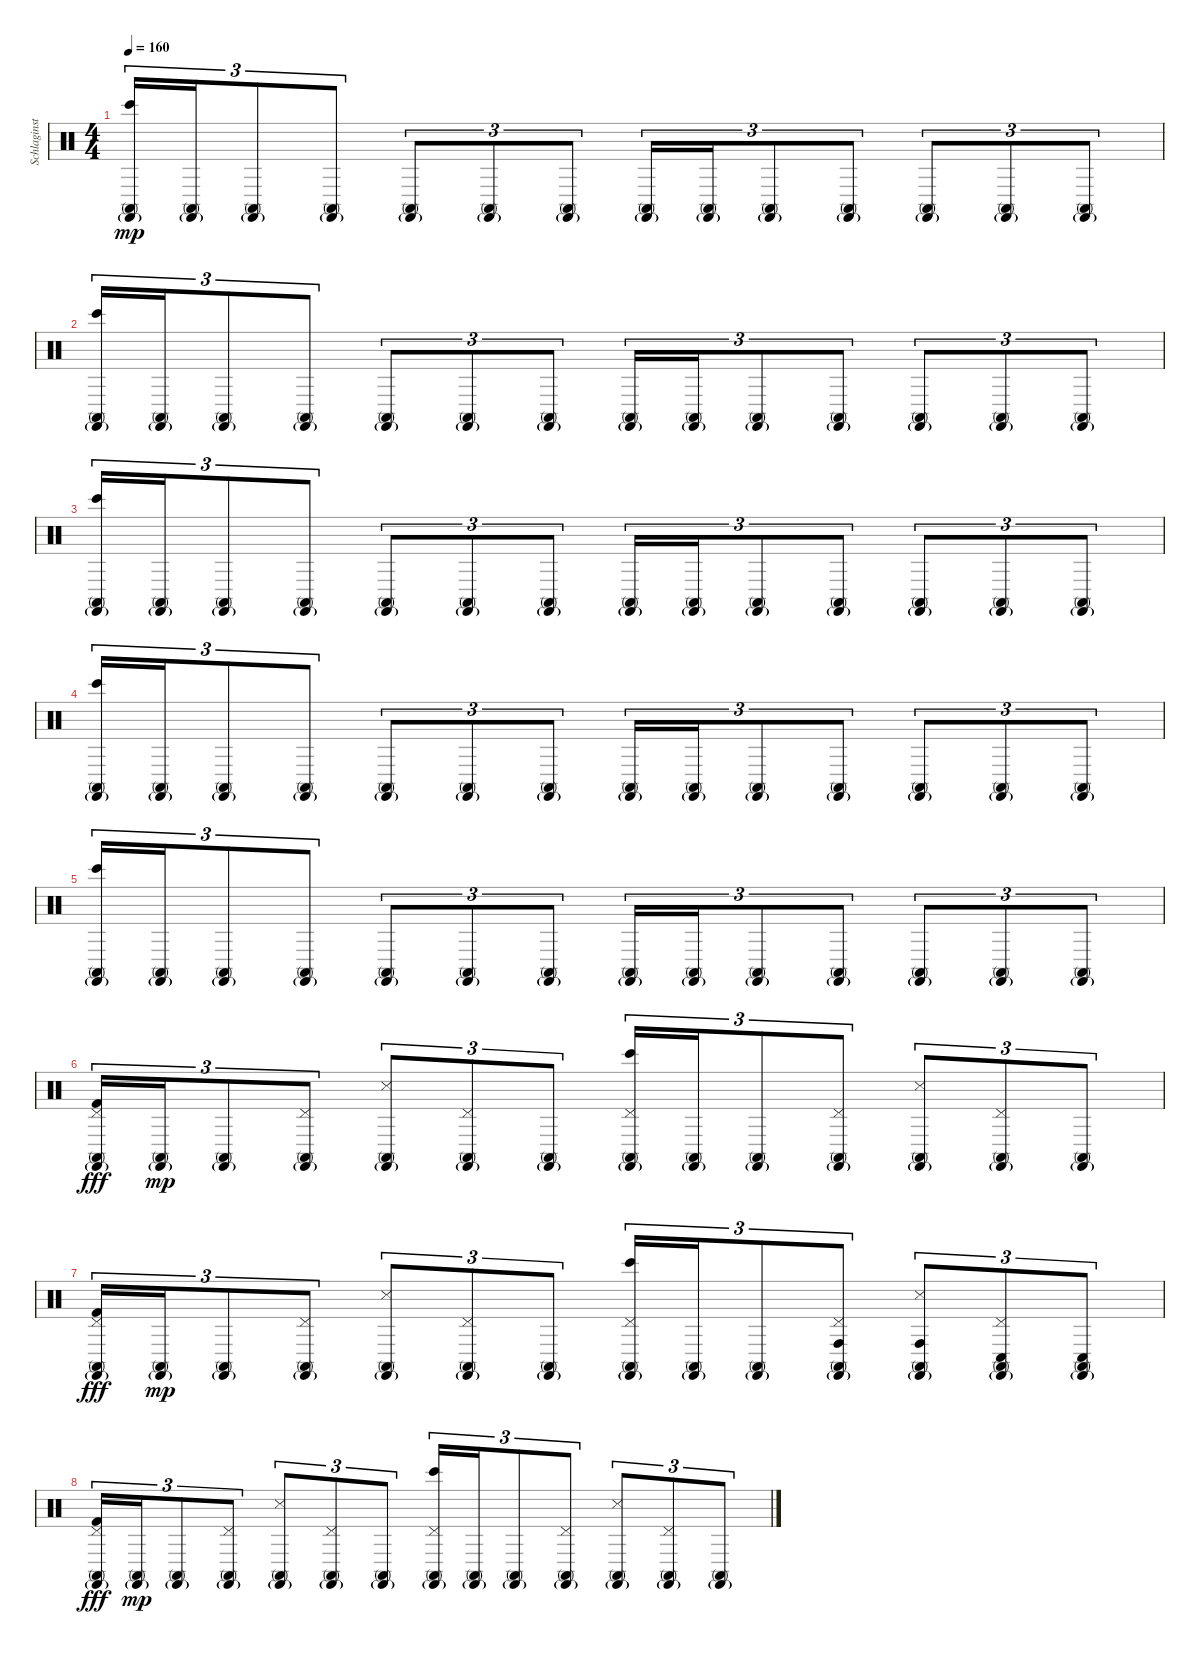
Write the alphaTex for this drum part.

\track ("Schlaginstrumente - Auswahl" "Schlaginst") {instrument percussion}
\staff {score}
\articulation defaults
\ts (4 4)
\tempo 160
\clef neutral
\ks c
("Castanets (hit)"{g} "Bongo High (hit)" "Conga high (mute)").16{tu (3 2) dy mp} ("Castanets (hit)"{g} "Conga high (mute)").16{tu (3 2)} ("Castanets (hit)"{g} "Conga high (mute)").8{tu (3 2)} ("Castanets (hit)"{g} "Conga high (mute)").8{tu (3 2)} ("Castanets (hit)"{g} "Conga high (mute)").8{tu (3 2)} ("Castanets (hit)"{g} "Conga high (mute)").8{tu (3 2)} ("Castanets (hit)"{g} "Conga high (mute)").8{tu (3 2)} ("Castanets (hit)"{g} "Conga high (mute)").16{tu (3 2)} ("Castanets (hit)"{g} "Conga high (mute)").16{tu (3 2)} ("Castanets (hit)"{g} "Conga high (mute)").8{tu (3 2)} ("Castanets (hit)"{g} "Conga high (mute)").8{tu (3 2)} ("Castanets (hit)"{g} "Conga high (mute)").8{tu (3 2)} ("Castanets (hit)"{g} "Conga high (mute)").8{tu (3 2)} ("Castanets (hit)"{g} "Conga high (mute)").8{tu (3 2)} |
("Castanets (hit)"{g} "Bongo High (hit)" "Conga high (mute)").16{tu (3 2)} ("Castanets (hit)"{g} "Conga high (mute)").16{tu (3 2)} ("Castanets (hit)"{g} "Conga high (mute)").8{tu (3 2)} ("Castanets (hit)"{g} "Conga high (mute)").8{tu (3 2)} ("Castanets (hit)"{g} "Conga high (mute)").8{tu (3 2)} ("Castanets (hit)"{g} "Conga high (mute)").8{tu (3 2)} ("Castanets (hit)"{g} "Conga high (mute)").8{tu (3 2)} ("Castanets (hit)"{g} "Conga high (mute)").16{tu (3 2)} ("Castanets (hit)"{g} "Conga high (mute)").16{tu (3 2)} ("Castanets (hit)"{g} "Conga high (mute)").8{tu (3 2)} ("Castanets (hit)"{g} "Conga high (mute)").8{tu (3 2)} ("Castanets (hit)"{g} "Conga high (mute)").8{tu (3 2)} ("Castanets (hit)"{g} "Conga high (mute)").8{tu (3 2)} ("Castanets (hit)"{g} "Conga high (mute)").8{tu (3 2)} |
("Castanets (hit)"{g} "Bongo High (hit)" "Conga high (mute)").16{tu (3 2)} ("Castanets (hit)"{g} "Conga high (mute)").16{tu (3 2)} ("Castanets (hit)"{g} "Conga high (mute)").8{tu (3 2)} ("Castanets (hit)"{g} "Conga high (mute)").8{tu (3 2)} ("Castanets (hit)"{g} "Conga high (mute)").8{tu (3 2)} ("Castanets (hit)"{g} "Conga high (mute)").8{tu (3 2)} ("Castanets (hit)"{g} "Conga high (mute)").8{tu (3 2)} ("Castanets (hit)"{g} "Conga high (mute)").16{tu (3 2)} ("Castanets (hit)"{g} "Conga high (mute)").16{tu (3 2)} ("Castanets (hit)"{g} "Conga high (mute)").8{tu (3 2)} ("Castanets (hit)"{g} "Conga high (mute)").8{tu (3 2)} ("Castanets (hit)"{g} "Conga high (mute)").8{tu (3 2)} ("Castanets (hit)"{g} "Conga high (mute)").8{tu (3 2)} ("Castanets (hit)"{g} "Conga high (mute)").8{tu (3 2)} |
("Castanets (hit)"{g} "Bongo High (hit)" "Conga high (mute)").16{tu (3 2)} ("Castanets (hit)"{g} "Conga high (mute)").16{tu (3 2)} ("Castanets (hit)"{g} "Conga high (mute)").8{tu (3 2)} ("Castanets (hit)"{g} "Conga high (mute)").8{tu (3 2)} ("Castanets (hit)"{g} "Conga high (mute)").8{tu (3 2)} ("Castanets (hit)"{g} "Conga high (mute)").8{tu (3 2)} ("Castanets (hit)"{g} "Conga high (mute)").8{tu (3 2)} ("Castanets (hit)"{g} "Conga high (mute)").16{tu (3 2)} ("Castanets (hit)"{g} "Conga high (mute)").16{tu (3 2)} ("Castanets (hit)"{g} "Conga high (mute)").8{tu (3 2)} ("Castanets (hit)"{g} "Conga high (mute)").8{tu (3 2)} ("Castanets (hit)"{g} "Conga high (mute)").8{tu (3 2)} ("Castanets (hit)"{g} "Conga high (mute)").8{tu (3 2)} ("Castanets (hit)"{g} "Conga high (mute)").8{tu (3 2)} |
("Castanets (hit)"{g} "Bongo High (hit)" "Conga high (mute)").16{tu (3 2)} ("Castanets (hit)"{g} "Conga high (mute)").16{tu (3 2)} ("Castanets (hit)"{g} "Conga high (mute)").8{tu (3 2)} ("Castanets (hit)"{g} "Conga high (mute)").8{tu (3 2)} ("Castanets (hit)"{g} "Conga high (mute)").8{tu (3 2)} ("Castanets (hit)"{g} "Conga high (mute)").8{tu (3 2)} ("Castanets (hit)"{g} "Conga high (mute)").8{tu (3 2)} ("Castanets (hit)"{g} "Conga high (mute)").16{tu (3 2)} ("Castanets (hit)"{g} "Conga high (mute)").16{tu (3 2)} ("Castanets (hit)"{g} "Conga high (mute)").8{tu (3 2)} ("Castanets (hit)"{g} "Conga high (mute)").8{tu (3 2)} ("Castanets (hit)"{g} "Conga high (mute)").8{tu (3 2)} ("Castanets (hit)"{g} "Conga high (mute)").8{tu (3 2)} ("Castanets (hit)"{g} "Conga high (mute)").8{tu (3 2)} |
("Pedal Hi-Hat (hit)" "Castanets (hit)"{g} "Kick (hit) 2" "Conga high (mute)").16{tu (3 2) dy fff} ("Castanets (hit)"{g} "Conga high (mute)").16{tu (3 2) dy mp} ("Castanets (hit)"{g} "Conga high (mute)").8{tu (3 2)} ("Pedal Hi-Hat (hit)" "Castanets (hit)"{g} "Conga high (mute)").8{tu (3 2)} ("Castanets (hit)"{g} "Snare (side stick) 3" "Conga high (mute)").8{tu (3 2)} ("Pedal Hi-Hat (hit)" "Castanets (hit)"{g} "Conga high (mute)").8{tu (3 2)} ("Castanets (hit)"{g} "Conga high (mute)").8{tu (3 2)} ("Pedal Hi-Hat (hit)" "Castanets (hit)"{g} "Bongo High (hit)" "Conga high (mute)").16{tu (3 2)} ("Castanets (hit)"{g} "Conga high (mute)").16{tu (3 2)} ("Castanets (hit)"{g} "Conga high (mute)").8{tu (3 2)} ("Pedal Hi-Hat (hit)" "Castanets (hit)"{g} "Conga high (mute)").8{tu (3 2)} ("Castanets (hit)"{g} "Snare (side stick) 3" "Conga high (mute)").8{tu (3 2)} ("Pedal Hi-Hat (hit)" "Castanets (hit)"{g} "Conga high (mute)").8{tu (3 2)} ("Castanets (hit)"{g} "Conga high (mute)").8{tu (3 2)} |
("Pedal Hi-Hat (hit)" "Castanets (hit)"{g} "Kick (hit) 2" "Conga high (mute)").16{tu (3 2) dy fff} ("Castanets (hit)"{g} "Conga high (mute)").16{tu (3 2) dy mp} ("Castanets (hit)"{g} "Conga high (mute)").8{tu (3 2)} ("Pedal Hi-Hat (hit)" "Castanets (hit)"{g} "Conga high (mute)").8{tu (3 2)} ("Castanets (hit)"{g} "Snare (side stick) 3" "Conga high (mute)").8{tu (3 2)} ("Pedal Hi-Hat (hit)" "Castanets (hit)"{g} "Conga high (mute)").8{tu (3 2)} ("Castanets (hit)"{g} "Conga high (mute)").8{tu (3 2)} ("Pedal Hi-Hat (hit)" "Castanets (hit)"{g} "Bongo High (hit)" "Conga high (mute)").16{tu (3 2)} ("Castanets (hit)"{g} "Conga high (mute)").16{tu (3 2)} ("Castanets (hit)"{g} "Conga high (mute)").8{tu (3 2)} ("Pedal Hi-Hat (hit)" "Castanets (hit)"{g} "Conga high (hit)" "Conga high (mute)").8{tu (3 2)} ("Castanets (hit)"{g} "Snare (side stick) 3" "Conga high (hit)" "Conga high (mute)").8{tu (3 2)} ("Pedal Hi-Hat (hit)" "Castanets (hit)"{g} "Conga low (hit)" "Conga high (mute)").8{tu (3 2)} ("Castanets (hit)"{g} "Conga low (hit)" "Conga high (mute)").8{tu (3 2)} |
("Pedal Hi-Hat (hit)" "Castanets (hit)"{g} "Kick (hit) 2" "Conga high (mute)").16{tu (3 2) dy fff} ("Castanets (hit)"{g} "Conga high (mute)").16{tu (3 2) dy mp} ("Castanets (hit)"{g} "Conga high (mute)").8{tu (3 2)} ("Pedal Hi-Hat (hit)" "Castanets (hit)"{g} "Conga high (mute)").8{tu (3 2)} ("Castanets (hit)"{g} "Snare (side stick) 3" "Conga high (mute)").8{tu (3 2)} ("Pedal Hi-Hat (hit)" "Castanets (hit)"{g} "Conga high (mute)").8{tu (3 2)} ("Castanets (hit)"{g} "Conga high (mute)").8{tu (3 2)} ("Pedal Hi-Hat (hit)" "Castanets (hit)"{g} "Bongo High (hit)" "Conga high (mute)").16{tu (3 2)} ("Castanets (hit)"{g} "Conga high (mute)").16{tu (3 2)} ("Castanets (hit)"{g} "Conga high (mute)").8{tu (3 2)} ("Pedal Hi-Hat (hit)" "Castanets (hit)"{g} "Conga high (mute)").8{tu (3 2)} ("Castanets (hit)"{g} "Snare (side stick) 3" "Conga high (mute)").8{tu (3 2)} ("Pedal Hi-Hat (hit)" "Castanets (hit)"{g} "Conga high (mute)").8{tu (3 2)} ("Castanets (hit)"{g} "Conga high (mute)").8{tu (3 2)}
